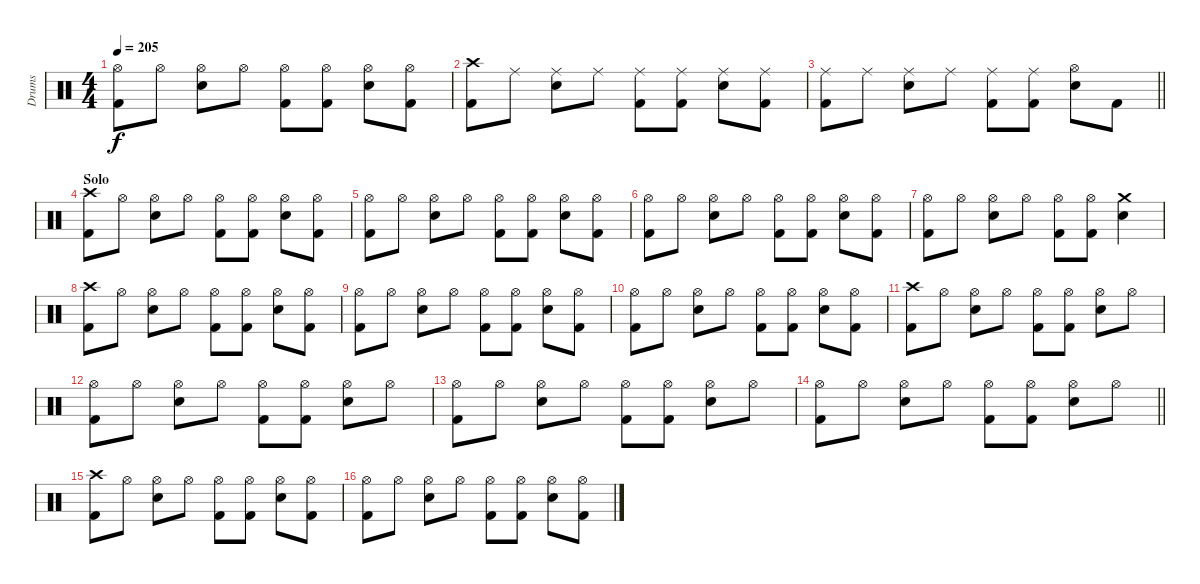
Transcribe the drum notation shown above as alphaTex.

\track ("Drums" "Drums") {instrument percussion}
\staff {score}
\articulation defaults
\ts (4 4)
\tempo 205
\clef neutral
\ks c
("Hi-Hat (open)" "Kick (hit) 2").8{dy f} "Hi-Hat (open)".8 ("Hi-Hat (open)" "Electric Snare (hit)").8 "Hi-Hat (open)".8 ("Hi-Hat (open)" "Kick (hit) 2").8 ("Hi-Hat (open)" "Kick (hit) 2").8 ("Hi-Hat (open)" "Electric Snare (hit)").8 ("Hi-Hat (open)" "Kick (hit) 2").8 |
("Crash high (hit)" "Kick (hit) 2").8 "Ride (middle)".8 ("Ride (middle)" "Electric Snare (hit)").8 "Ride (middle)".8 ("Ride (middle)" "Kick (hit) 2").8 ("Ride (middle)" "Kick (hit) 2").8 ("Ride (middle)" "Electric Snare (hit)").8 ("Ride (middle)" "Kick (hit) 2").8 |
\barLineRight lightlight
("Ride (middle)" "Kick (hit) 2").8 "Ride (middle)".8 ("Ride (middle)" "Electric Snare (hit)").8 "Ride (middle)".8 ("Ride (middle)" "Kick (hit) 2").8 ("Ride (middle)" "Kick (hit) 2").8 ("Hi-Hat (open)" "Electric Snare (hit)").8 "Kick (hit) 2".8 |
\section ("" "Solo")
("Crash high (hit)" "Kick (hit) 2").8 "Hi-Hat (open)".8 ("Hi-Hat (open)" "Electric Snare (hit)").8 "Hi-Hat (open)".8 ("Hi-Hat (open)" "Kick (hit) 2").8 ("Hi-Hat (open)" "Kick (hit) 2").8 ("Hi-Hat (open)" "Electric Snare (hit)").8 ("Hi-Hat (open)" "Kick (hit) 2").8 |
("Hi-Hat (open)" "Kick (hit) 2").8 "Hi-Hat (open)".8 ("Hi-Hat (open)" "Electric Snare (hit)").8 "Hi-Hat (open)".8 ("Hi-Hat (open)" "Kick (hit) 2").8 ("Hi-Hat (open)" "Kick (hit) 2").8 ("Hi-Hat (open)" "Electric Snare (hit)").8 ("Hi-Hat (open)" "Kick (hit) 2").8 |
("Hi-Hat (open)" "Kick (hit) 2").8 "Hi-Hat (open)".8 ("Hi-Hat (open)" "Electric Snare (hit)").8 "Hi-Hat (open)".8 ("Hi-Hat (open)" "Kick (hit) 2").8 ("Hi-Hat (open)" "Kick (hit) 2").8 ("Hi-Hat (open)" "Electric Snare (hit)").8 ("Hi-Hat (open)" "Kick (hit) 2").8 |
("Hi-Hat (open)" "Kick (hit) 2").8 "Hi-Hat (open)".8 ("Hi-Hat (open)" "Electric Snare (hit)").8 "Hi-Hat (open)".8 ("Hi-Hat (open)" "Kick (hit) 2").8 ("Hi-Hat (open)" "Kick (hit) 2").8 ("Crash medium (hit)" "Electric Snare (hit)").4 |
("Crash high (hit)" "Kick (hit) 2").8 "Hi-Hat (open)".8 ("Hi-Hat (open)" "Electric Snare (hit)").8 "Hi-Hat (open)".8 ("Hi-Hat (open)" "Kick (hit) 2").8 ("Hi-Hat (open)" "Kick (hit) 2").8 ("Hi-Hat (open)" "Electric Snare (hit)").8 ("Hi-Hat (open)" "Kick (hit) 2").8 |
("Hi-Hat (open)" "Kick (hit) 2").8 "Hi-Hat (open)".8 ("Hi-Hat (open)" "Electric Snare (hit)").8 "Hi-Hat (open)".8 ("Hi-Hat (open)" "Kick (hit) 2").8 ("Hi-Hat (open)" "Kick (hit) 2").8 ("Hi-Hat (open)" "Electric Snare (hit)").8 ("Hi-Hat (open)" "Kick (hit) 2").8 |
("Hi-Hat (open)" "Kick (hit) 2").8 "Hi-Hat (open)".8 ("Hi-Hat (open)" "Electric Snare (hit)").8 "Hi-Hat (open)".8 ("Hi-Hat (open)" "Kick (hit) 2").8 ("Hi-Hat (open)" "Kick (hit) 2").8 ("Hi-Hat (open)" "Electric Snare (hit)").8 ("Hi-Hat (open)" "Kick (hit) 2").8 |
("Crash high (hit)" "Kick (hit) 2").8 "Hi-Hat (open)".8 ("Hi-Hat (open)" "Electric Snare (hit)").8 "Hi-Hat (open)".8 ("Hi-Hat (open)" "Kick (hit) 2").8 ("Hi-Hat (open)" "Kick (hit) 2").8 ("Hi-Hat (open)" "Electric Snare (hit)").8 "Hi-Hat (open)".8 |
("Hi-Hat (open)" "Kick (hit) 2").8 "Hi-Hat (open)".8 ("Hi-Hat (open)" "Electric Snare (hit)").8 "Hi-Hat (open)".8 ("Hi-Hat (open)" "Kick (hit) 2").8 ("Hi-Hat (open)" "Kick (hit) 2").8 ("Hi-Hat (open)" "Electric Snare (hit)").8 "Hi-Hat (open)".8 |
("Hi-Hat (open)" "Kick (hit) 2").8 "Hi-Hat (open)".8 ("Hi-Hat (open)" "Electric Snare (hit)").8 "Hi-Hat (open)".8 ("Hi-Hat (open)" "Kick (hit) 2").8 ("Hi-Hat (open)" "Kick (hit) 2").8 ("Hi-Hat (open)" "Electric Snare (hit)").8 "Hi-Hat (open)".8 |
\barLineRight lightlight
("Hi-Hat (open)" "Kick (hit) 2").8 "Hi-Hat (open)".8 ("Hi-Hat (open)" "Electric Snare (hit)").8 "Hi-Hat (open)".8 ("Hi-Hat (open)" "Kick (hit) 2").8 ("Hi-Hat (open)" "Kick (hit) 2").8 ("Hi-Hat (open)" "Electric Snare (hit)").8 "Hi-Hat (open)".8 |
\section ("" "")
("Crash high (hit)" "Kick (hit) 2").8 "Hi-Hat (open)".8 ("Hi-Hat (open)" "Electric Snare (hit)").8 "Hi-Hat (open)".8 ("Hi-Hat (open)" "Kick (hit) 2").8 ("Hi-Hat (open)" "Kick (hit) 2").8 ("Hi-Hat (open)" "Electric Snare (hit)").8 ("Hi-Hat (open)" "Kick (hit) 2").8 |
("Hi-Hat (open)" "Kick (hit) 2").8 "Hi-Hat (open)".8 ("Hi-Hat (open)" "Electric Snare (hit)").8 "Hi-Hat (open)".8 ("Hi-Hat (open)" "Kick (hit) 2").8 ("Hi-Hat (open)" "Kick (hit) 2").8 ("Hi-Hat (open)" "Electric Snare (hit)").8 ("Hi-Hat (open)" "Kick (hit) 2").8
